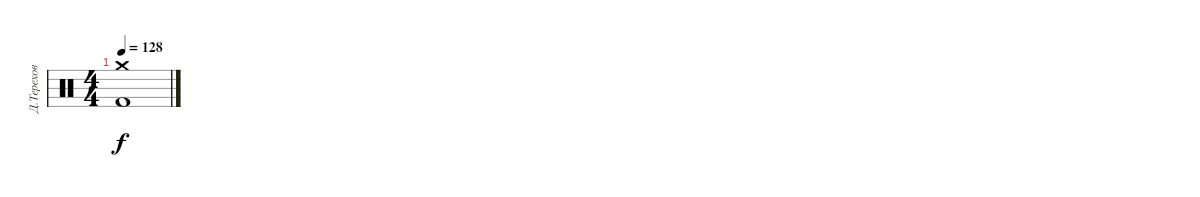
\track ("Д.Терехов" "Д.Терехов") {instrument percussion}
\staff {score}
\articulation defaults
\ts (4 4)
\tempo 128
\clef neutral
\ks c
("Crash medium (hit)" "Kick (hit) 2").1{dy f}
